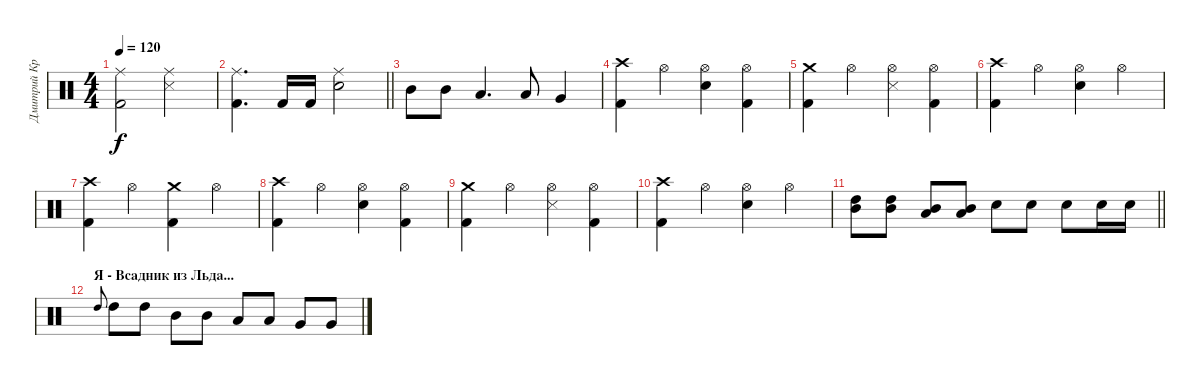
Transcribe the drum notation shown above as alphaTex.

\track ("Дмитрий Кривенков       (Ударные)" "Дмитрий Кр") {instrument percussion}
\staff {score}
\articulation defaults
\ts (4 4)
\tempo 120
\clef neutral
\ks c
("Ride (middle)" "Kick (hit) 2").2{dy f} ("Snare (side stick) 3" "Ride (middle)").2 |
\barLineRight lightlight
("Ride (middle)" "Kick (hit) 2").4{d} "Kick (hit) 2".16 "Kick (hit) 2".16 ("Ride (middle)" "Electric Snare (hit)").2 |
"Mid Tom (hit)".8 "Mid Tom (hit)".8 "Low Tom (hit)".4{d} "Low Tom (hit)".8 "Very Low Tom (hit)".4 |
("Crash high (hit)" "Kick (hit) 2").4 "Hi-Hat (open)".4 ("Hi-Hat (open)" "Electric Snare (hit)").4 ("Hi-Hat (open)" "Kick (hit) 2").4 |
("Crash medium (hit)" "Kick (hit) 2").4 "Hi-Hat (open)".4 ("Snare (side stick) 3" "Hi-Hat (open)").4 ("Hi-Hat (open)" "Kick (hit) 2").4 |
("Crash high (hit)" "Kick (hit) 2").4 "Hi-Hat (open)".4 ("Hi-Hat (open)" "Electric Snare (hit)").4 "Hi-Hat (open)".4 |
("Crash high (hit)" "Kick (hit) 2").4 "Hi-Hat (open)".4 ("Crash medium (hit)" "Kick (hit) 2").4 "Hi-Hat (open)".4 |
("Crash high (hit)" "Kick (hit) 2").4 "Hi-Hat (open)".4 ("Hi-Hat (open)" "Electric Snare (hit)").4 ("Hi-Hat (open)" "Kick (hit) 2").4 |
("Crash medium (hit)" "Kick (hit) 2").4 "Hi-Hat (open)".4 ("Snare (side stick) 3" "Hi-Hat (open)").4 ("Hi-Hat (open)" "Kick (hit) 2").4 |
("Crash high (hit)" "Kick (hit) 2").4 "Hi-Hat (open)".4 ("Hi-Hat (open)" "Electric Snare (hit)").4 "Hi-Hat (open)".4 |
\barLineRight lightlight
("High Tom (hit)" "Mid Tom (hit)").8 ("High Tom (hit)" "Mid Tom (hit)").8 ("Mid Tom (hit)" "Low Tom (hit)").8 ("Mid Tom (hit)" "Low Tom (hit)").8 "Electric Snare (hit)".8 "Electric Snare (hit)".8 "Electric Snare (hit)".8 "Electric Snare (hit)".16 "Electric Snare (hit)".16 |
\section ("" "Я - Всадник из Льда...")
"High Tom (hit)".8{gr onbeat} "High Tom (hit)".8 "High Tom (hit)".8 "Mid Tom (hit)".8 "Mid Tom (hit)".8 "Low Tom (hit)".8 "Low Tom (hit)".8 "Very Low Tom (hit)".8 "Very Low Tom (hit)".8
